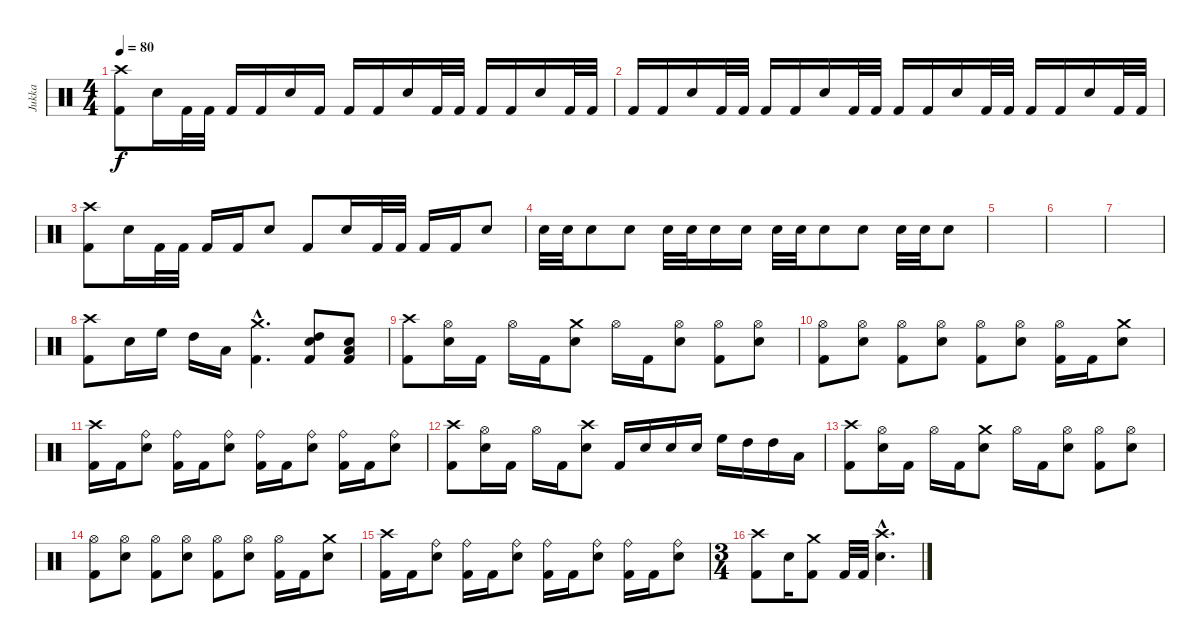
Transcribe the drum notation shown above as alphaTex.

\track ("Jukka" "Jukka") {instrument percussion}
\staff {score}
\articulation defaults
\ts (4 4)
\tempo 80
\clef neutral
\ks c
("Crash high (hit)" "Kick (hit) 2").8{dy f} "Electric Snare (hit)".16 "Kick (hit) 2".32 "Kick (hit) 2".32 "Kick (hit) 2".16 "Kick (hit) 2".16 "Electric Snare (hit)".16 "Kick (hit) 2".16 "Kick (hit) 2".16 "Kick (hit) 2".16 "Electric Snare (hit)".16 "Kick (hit) 2".32 "Kick (hit) 2".32 "Kick (hit) 2".16 "Kick (hit) 2".16 "Electric Snare (hit)".16 "Kick (hit) 2".32 "Kick (hit) 2".32 |
"Kick (hit) 2".16 "Kick (hit) 2".16 "Electric Snare (hit)".16 "Kick (hit) 2".32 "Kick (hit) 2".32 "Kick (hit) 2".16 "Kick (hit) 2".16 "Electric Snare (hit)".16 "Kick (hit) 2".32 "Kick (hit) 2".32 "Kick (hit) 2".16 "Kick (hit) 2".16 "Electric Snare (hit)".16 "Kick (hit) 2".32 "Kick (hit) 2".32 "Kick (hit) 2".16 "Kick (hit) 2".16 "Electric Snare (hit)".16 "Kick (hit) 2".32 "Kick (hit) 2".32 |
("Crash high (hit)" "Kick (hit) 2").8 "Electric Snare (hit)".16 "Kick (hit) 2".32 "Kick (hit) 2".32 "Kick (hit) 2".16 "Kick (hit) 2".16 "Electric Snare (hit)".8 "Kick (hit) 2".8 "Electric Snare (hit)".16 "Kick (hit) 2".32 "Kick (hit) 2".32 "Kick (hit) 2".16 "Kick (hit) 2".16 "Electric Snare (hit)".8 |
"Electric Snare (hit)".32 "Electric Snare (hit)".32 "Electric Snare (hit)".8 "Electric Snare (hit)".8 "Electric Snare (hit)".32 "Electric Snare (hit)".32 "Electric Snare (hit)".16 "Electric Snare (hit)".16 "Electric Snare (hit)".32 "Electric Snare (hit)".32 "Electric Snare (hit)".8 "Electric Snare (hit)".8 "Electric Snare (hit)".32 "Electric Snare (hit)".32 "Electric Snare (hit)".8 |
|
|
|
("Crash high (hit)" "Kick (hit) 2").8 "Electric Snare (hit)".16 "High Floor Tom (hit)".16 "High Tom (hit)".16 "Low Tom (hit)".16 ("Crash medium (hit)"{hac} "Kick (hit) 2"{hac}).4{d} ("High Tom (hit)" "Electric Snare (hit)" "Kick (hit) 2").8 ("Electric Snare (hit)" "Low Tom (hit)" "Kick (hit) 2").8 |
("Crash high (hit)" "Kick (hit) 2").8 ("Hi-Hat (open)" "Electric Snare (hit)").16 "Kick (hit) 2".16 "Hi-Hat (open)".16 "Kick (hit) 2".16 ("Crash medium (hit)" "Electric Snare (hit)").8 "Hi-Hat (open)".16 "Kick (hit) 2".16 ("Hi-Hat (open)" "Electric Snare (hit)").8 ("Hi-Hat (open)" "Kick (hit) 2").8 ("Hi-Hat (open)" "Electric Snare (hit)").8 |
("Hi-Hat (open)" "Kick (hit) 2").8 ("Hi-Hat (open)" "Electric Snare (hit)").8 ("Hi-Hat (open)" "Kick (hit) 2").8 ("Hi-Hat (open)" "Electric Snare (hit)").8 ("Hi-Hat (open)" "Kick (hit) 2").8 ("Hi-Hat (open)" "Electric Snare (hit)").8 ("Hi-Hat (open)" "Kick (hit) 2").16 "Kick (hit) 2".16 ("Crash medium (hit)" "Electric Snare (hit)").8 |
("Crash high (hit)" "Kick (hit) 2").16 "Kick (hit) 2".16 ("Ride (bell)" "Electric Snare (hit)").8 ("Ride (bell)" "Kick (hit) 2").16 "Kick (hit) 2".16 ("Ride (bell)" "Electric Snare (hit)").8 ("Ride (bell)" "Kick (hit) 2").16 "Kick (hit) 2".16 ("Ride (bell)" "Electric Snare (hit)").8 ("Ride (bell)" "Kick (hit) 2").16 "Kick (hit) 2".16 ("Ride (bell)" "Electric Snare (hit)").8 |
("Crash high (hit)" "Kick (hit) 2").8 ("Hi-Hat (open)" "Electric Snare (hit)").16 "Kick (hit) 2".16 "Hi-Hat (open)".16 "Kick (hit) 2".16 ("Crash high (hit)" "Electric Snare (hit)").8 "Kick (hit) 2".16 "Electric Snare (hit)".16 "Electric Snare (hit)".16 "Electric Snare (hit)".16 "High Floor Tom (hit)".16 "High Tom (hit)".16 "High Tom (hit)".16 "Low Tom (hit)".16 |
("Crash high (hit)" "Kick (hit) 2").8 ("Hi-Hat (open)" "Electric Snare (hit)").16 "Kick (hit) 2".16 "Hi-Hat (open)".16 "Kick (hit) 2".16 ("Crash medium (hit)" "Electric Snare (hit)").8 "Hi-Hat (open)".16 "Kick (hit) 2".16 ("Hi-Hat (open)" "Electric Snare (hit)").8 ("Hi-Hat (open)" "Kick (hit) 2").8 ("Hi-Hat (open)" "Electric Snare (hit)").8 |
("Hi-Hat (open)" "Kick (hit) 2").8 ("Hi-Hat (open)" "Electric Snare (hit)").8 ("Hi-Hat (open)" "Kick (hit) 2").8 ("Hi-Hat (open)" "Electric Snare (hit)").8 ("Hi-Hat (open)" "Kick (hit) 2").8 ("Hi-Hat (open)" "Electric Snare (hit)").8 ("Hi-Hat (open)" "Kick (hit) 2").16 "Kick (hit) 2".16 ("Crash medium (hit)" "Electric Snare (hit)").8 |
("Crash high (hit)" "Kick (hit) 2").16 "Kick (hit) 2".16 ("Ride (bell)" "Electric Snare (hit)").8 ("Ride (bell)" "Kick (hit) 2").16 "Kick (hit) 2".16 ("Ride (bell)" "Electric Snare (hit)").8 ("Ride (bell)" "Kick (hit) 2").16 "Kick (hit) 2".16 ("Ride (bell)" "Electric Snare (hit)").8 ("Ride (bell)" "Kick (hit) 2").16 "Kick (hit) 2".16 ("Ride (bell)" "Electric Snare (hit)").8 |
\ts (3 4)
("Crash high (hit)" "Kick (hit) 2").8 "Electric Snare (hit)".16 ("Crash medium (hit)" "Kick (hit) 2").8 "Kick (hit) 2".32 "Kick (hit) 2".32 ("Crash high (hit)"{hac} "Electric Snare (hit)"{hac}).4{d}
